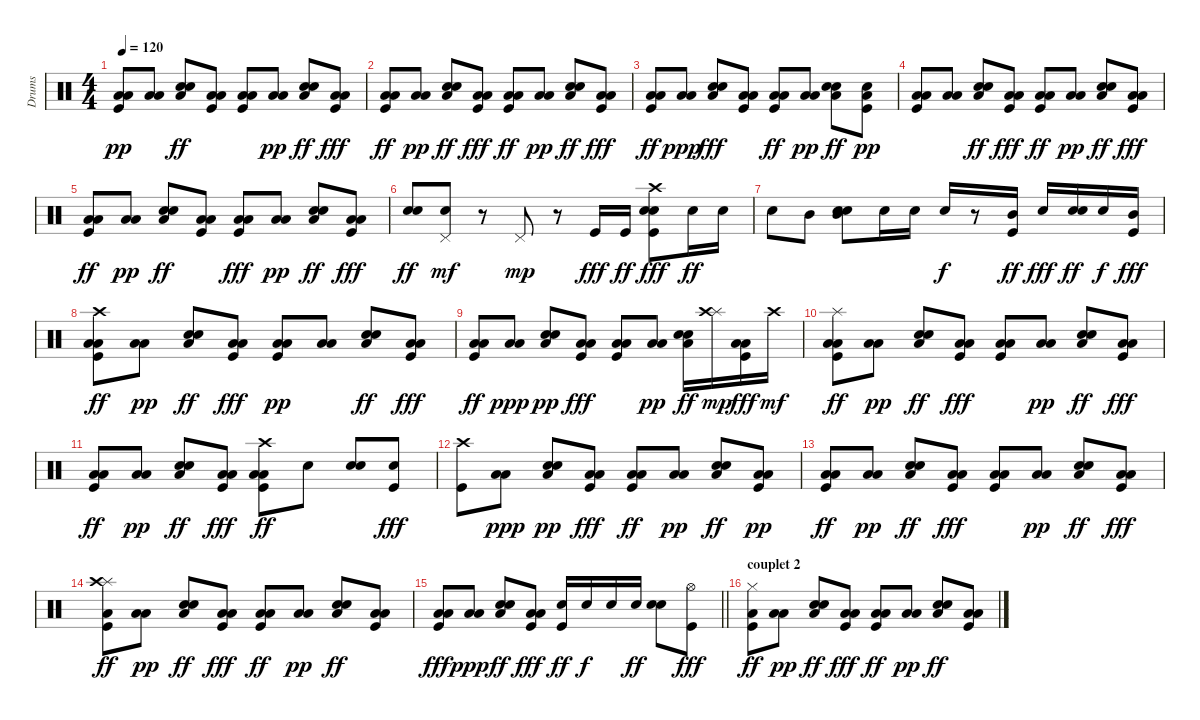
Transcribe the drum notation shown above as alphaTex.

\track ("Drums" "Drums") {instrument percussion}
\staff {score}
\articulation defaults
\ts (4 4)
\tempo 120
\clef neutral
\ks c
("Low Tom (hit)" "Low Floor Tom (hit)" "Kick (hit)").8{dy pp} ("Low Tom (hit)" "Low Floor Tom (hit)").8 ("Snare (hit) 2" "Low Floor Tom (hit)" "Hand Clap (hit)").8{dy ff} ("Low Tom (hit)" "Low Floor Tom (hit)" "Kick (hit)").8 ("Low Tom (hit)" "Low Floor Tom (hit)" "Kick (hit)").8 ("Low Tom (hit)" "Low Floor Tom (hit)").8{dy pp} ("Snare (hit) 2" "Low Floor Tom (hit)" "Hand Clap (hit)").8{dy ff} ("Low Tom (hit)" "Low Floor Tom (hit)" "Kick (hit)").8{dy fff} |
("Low Tom (hit)" "Low Floor Tom (hit)" "Kick (hit)").8{dy ff} ("Low Tom (hit)" "Low Floor Tom (hit)").8{dy pp} ("Snare (hit) 2" "Low Floor Tom (hit)" "Hand Clap (hit)").8{dy ff} ("Low Tom (hit)" "Low Floor Tom (hit)" "Kick (hit)").8{dy fff} ("Low Tom (hit)" "Low Floor Tom (hit)" "Kick (hit)").8{dy ff} ("Low Floor Tom (hit)" "Low Tom (hit)").8{dy pp} ("Low Floor Tom (hit)" "Hand Clap (hit)" "Snare (hit) 2").8{dy ff} ("Low Tom (hit)" "Low Floor Tom (hit)" "Kick (hit)").8{dy fff} |
("Low Tom (hit)" "Low Floor Tom (hit)" "Kick (hit)").8{dy ff} ("Low Floor Tom (hit)" "Low Tom (hit)").8{dy ppp} ("Snare (hit) 2" "Low Floor Tom (hit)" "Hand Clap (hit)").8{dy fff} ("Low Tom (hit)" "Low Floor Tom (hit)" "Kick (hit)").8 ("Low Tom (hit)" "Low Floor Tom (hit)" "Kick (hit)").8{dy ff} ("Low Tom (hit)" "Low Floor Tom (hit)").8{dy pp} ("Low Floor Tom (hit)" "Hand Clap (hit)" "Snare (hit) 2").8{dy ff} ("Snare (hit) 2" "Kick (hit)" "Low Floor Tom (hit)").8{dy pp} |
("Kick (hit)" "Low Tom (hit)" "Low Floor Tom (hit)").8 ("Low Tom (hit)" "Low Floor Tom (hit)").8 ("Snare (hit) 2" "Low Floor Tom (hit)" "Hand Clap (hit)").8{dy ff} ("Low Tom (hit)" "Low Floor Tom (hit)" "Kick (hit)").8{dy fff} ("Low Tom (hit)" "Low Floor Tom (hit)" "Kick (hit)").8{dy ff} ("Low Tom (hit)" "Low Floor Tom (hit)").8{dy pp} ("Low Floor Tom (hit)" "Hand Clap (hit)" "Snare (hit) 2").8{dy ff} ("Low Tom (hit)" "Low Floor Tom (hit)" "Kick (hit)").8{dy fff} |
("Low Tom (hit)" "Low Floor Tom (hit)" "Kick (hit)").8{dy ff} ("Low Tom (hit)" "Low Floor Tom (hit)").8{dy pp} ("Snare (hit) 2" "Low Floor Tom (hit)" "Hand Clap (hit)").8{dy ff} ("Low Tom (hit)" "Low Floor Tom (hit)" "Kick (hit)").8 ("Low Tom (hit)" "Low Floor Tom (hit)" "Kick (hit)").8{dy fff} ("Low Floor Tom (hit)" "Low Tom (hit)").8{dy pp} ("Low Floor Tom (hit)" "Hand Clap (hit)" "Snare (hit) 2").8{dy ff} ("Low Tom (hit)" "Low Floor Tom (hit)" "Kick (hit)").8{dy fff} |
("Electric Snare (hit)" "Snare (hit) 2").8{dy ff} ("Hand Clap (hit)" "Pedal Hi-Hat (hit)").8{dy mf} r.8 "Pedal Hi-Hat (hit)".8{dy mp} r.8 "Kick (hit)".16{dy fff} "Kick (hit)".16{dy ff} ("Crash high (hit)" "Hand Clap (hit)" "Snare (hit) 2" "Kick (hit)").8{dy fff} "Snare (hit) 2".16{dy ff} "Snare (hit) 2".16 |
"Snare (hit) 2".8 "Mid Tom (hit)".8 ("Snare (hit) 2" "Hand Clap (hit)" "Mid Tom (hit)").8 "Snare (hit) 2".16 "Snare (hit) 2".16 "Snare (hit) 2".16{dy f} r.8 ("Mid Tom (hit)" "Kick (hit)").16{dy ff} "Snare (hit) 2".16{dy fff} ("Snare (hit) 2" "Hand Clap (hit)").16{dy ff} "Snare (hit) 2".16{dy f} ("Mid Tom (hit)" "Kick (hit)").16{dy fff} |
("Crash high (hit)" "Low Tom (hit)" "Low Floor Tom (hit)" "Kick (hit)").8{dy ff} ("Low Tom (hit)" "Low Floor Tom (hit)").8{dy pp} ("Snare (hit) 2" "Low Floor Tom (hit)" "Hand Clap (hit)").8{dy ff} ("Low Tom (hit)" "Low Floor Tom (hit)" "Kick (hit)").8{dy fff} ("Kick (hit)" "Low Tom (hit)" "Low Floor Tom (hit)").8{dy pp} ("Low Floor Tom (hit)" "Low Tom (hit)").8 ("Low Floor Tom (hit)" "Hand Clap (hit)" "Snare (hit) 2").8{dy ff} ("Low Tom (hit)" "Low Floor Tom (hit)" "Kick (hit)").8{dy fff} |
("Low Tom (hit)" "Low Floor Tom (hit)" "Kick (hit)").8{dy ff} ("Low Floor Tom (hit)" "Low Tom (hit)").8{dy ppp} ("Hand Clap (hit)" "Snare (hit) 2" "Low Floor Tom (hit)").8{dy pp} ("Low Tom (hit)" "Low Floor Tom (hit)" "Kick (hit)").8{dy fff} ("Low Tom (hit)" "Low Floor Tom (hit)" "Kick (hit)").8 ("Low Tom (hit)" "Low Floor Tom (hit)").8{dy pp} ("Snare (hit) 2" "Low Floor Tom (hit)" "Hand Clap (hit)").16{dy ff} ("Splash (hit)" "Crash high (hit)").16{dy mp} ("Low Tom (hit)" "Low Floor Tom (hit)" "Kick (hit)").16{dy fff} "Crash high (hit)".16{dy mf} |
("Splash (hit)" "Low Tom (hit)" "Low Floor Tom (hit)" "Kick (hit)").8{dy ff} ("Low Tom (hit)" "Low Floor Tom (hit)").8{dy pp} ("Snare (hit) 2" "Low Floor Tom (hit)" "Hand Clap (hit)").8{dy ff} ("Low Tom (hit)" "Low Floor Tom (hit)" "Kick (hit)").8{dy fff} ("Low Tom (hit)" "Low Floor Tom (hit)" "Kick (hit)").8 ("Low Tom (hit)" "Low Floor Tom (hit)").8{dy pp} ("Low Floor Tom (hit)" "Hand Clap (hit)" "Snare (hit) 2").8{dy ff} ("Low Tom (hit)" "Low Floor Tom (hit)" "Kick (hit)").8{dy fff} |
("Low Tom (hit)" "Low Floor Tom (hit)" "Kick (hit)").8{dy ff} ("Low Tom (hit)" "Low Floor Tom (hit)").8{dy pp} ("Snare (hit) 2" "Low Floor Tom (hit)" "Hand Clap (hit)").8{dy ff} ("Low Tom (hit)" "Low Floor Tom (hit)" "Kick (hit)").8{dy fff} ("Low Tom (hit)" "Low Floor Tom (hit)" "Kick (hit)" "Crash high (hit)").8{dy ff} "Snare (hit) 2".8 ("Snare (hit) 2" "Hand Clap (hit)").8 ("Snare (hit) 2" "Kick (hit)").8{dy fff} |
("Crash high (hit)" "Kick (hit)").8 ("Low Floor Tom (hit)" "Low Tom (hit)").8{dy ppp} ("Hand Clap (hit)" "Snare (hit) 2" "Low Floor Tom (hit)").8{dy pp} ("Low Tom (hit)" "Low Floor Tom (hit)" "Kick (hit)").8{dy fff} ("Low Tom (hit)" "Low Floor Tom (hit)" "Kick (hit)").8{dy ff} ("Low Tom (hit)" "Low Floor Tom (hit)").8{dy pp} ("Snare (hit) 2" "Low Floor Tom (hit)" "Hand Clap (hit)").8{dy ff} ("Kick (hit)" "Low Tom (hit)" "Low Floor Tom (hit)").8{dy pp} |
("Low Tom (hit)" "Low Floor Tom (hit)" "Kick (hit)").8{dy ff} ("Low Tom (hit)" "Low Floor Tom (hit)").8{dy pp} ("Snare (hit) 2" "Low Floor Tom (hit)" "Hand Clap (hit)").8{dy ff} ("Low Tom (hit)" "Low Floor Tom (hit)" "Kick (hit)").8{dy fff} ("Low Tom (hit)" "Low Floor Tom (hit)" "Kick (hit)").8 ("Low Tom (hit)" "Low Floor Tom (hit)").8{dy pp} ("Low Floor Tom (hit)" "Hand Clap (hit)" "Snare (hit) 2").8{dy ff} ("Low Tom (hit)" "Low Floor Tom (hit)" "Kick (hit)").8{dy fff} |
("Splash (hit)" "Low Tom (hit)" "Kick (hit)" "Crash high (hit)").8{dy ff} ("Low Tom (hit)" "Low Floor Tom (hit)").8{dy pp} ("Low Floor Tom (hit)" "Hand Clap (hit)" "Snare (hit) 2").8{dy ff} ("Low Tom (hit)" "Low Floor Tom (hit)" "Kick (hit)").8{dy fff} ("Low Tom (hit)" "Low Floor Tom (hit)" "Kick (hit)").8{dy ff} ("Low Floor Tom (hit)" "Low Tom (hit)").8{dy pp} ("Low Floor Tom (hit)" "Hand Clap (hit)" "Snare (hit) 2").8{dy ff} ("Low Tom (hit)" "Low Floor Tom (hit)" "Kick (hit)").8 |
\barLineRight lightlight
("Low Tom (hit)" "Low Floor Tom (hit)" "Kick (hit)").8{dy fff} ("Low Floor Tom (hit)" "Low Tom (hit)").8{dy ppp} ("Low Floor Tom (hit)" "Hand Clap (hit)" "Snare (hit) 2").8{dy ff} ("Low Tom (hit)" "Low Floor Tom (hit)" "Kick (hit)").8{dy fff} ("Kick (hit)" "Snare (hit) 2").16{dy ff} "Snare (hit) 2".16{dy f} "Snare (hit) 2".16 "Snare (hit) 2".16{dy ff} ("Hand Clap (hit)" "Snare (hit) 2").8 ("Kick (hit)" "Hi-Hat (open)").8{dy fff} |
\section ("" "couplet 2")
("Hi-Hat (closed)" "Low Tom (hit)" "Kick (hit)").8{dy ff} ("Low Tom (hit)" "Low Floor Tom (hit)").8{dy pp} ("Low Floor Tom (hit)" "Hand Clap (hit)" "Snare (hit) 2").8{dy ff} ("Low Tom (hit)" "Low Floor Tom (hit)" "Kick (hit)").8{dy fff} ("Low Tom (hit)" "Low Floor Tom (hit)" "Kick (hit)").8{dy ff} ("Low Tom (hit)" "Low Floor Tom (hit)").8{dy pp} ("Low Floor Tom (hit)" "Snare (hit) 2" "Hand Clap (hit)").8{dy ff} ("Low Tom (hit)" "Low Floor Tom (hit)" "Kick (hit)").8
